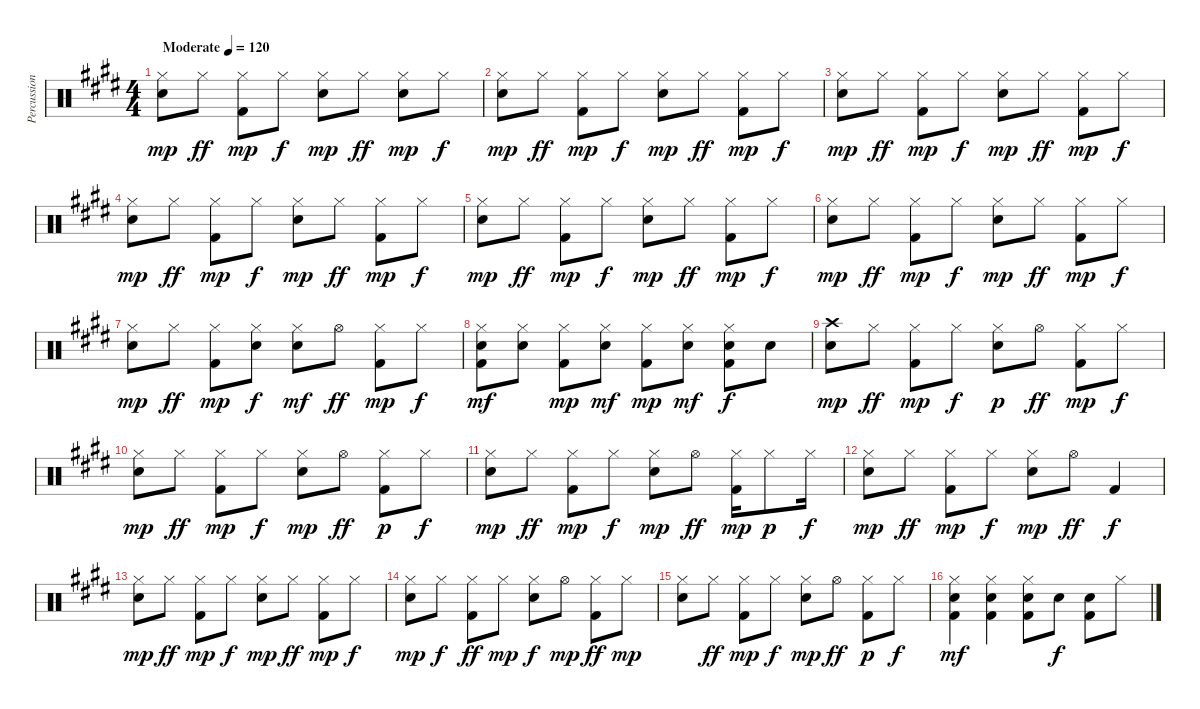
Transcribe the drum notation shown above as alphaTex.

\track ("Percussion" "Percussion") {instrument percussion}
\staff {score}
\articulation defaults
\ts (4 4)
\tempo (120 "Moderate")
\clef neutral
\ks e
("Hi-Hat (closed)" "Snare (hit) 2").8{dy mp} "Hi-Hat (closed)".8{dy ff} ("Hi-Hat (closed)" "Kick (hit) 2").8{dy mp} "Hi-Hat (closed)".8{dy f} ("Hi-Hat (closed)" "Snare (hit) 2").8{dy mp} "Hi-Hat (closed)".8{dy ff} ("Hi-Hat (closed)" "Snare (hit) 2").8{dy mp} "Hi-Hat (closed)".8{dy f} |
("Hi-Hat (closed)" "Snare (hit) 2").8{dy mp} "Hi-Hat (closed)".8{dy ff} ("Hi-Hat (closed)" "Kick (hit) 2").8{dy mp} "Hi-Hat (closed)".8{dy f} ("Hi-Hat (closed)" "Snare (hit) 2").8{dy mp} "Hi-Hat (closed)".8{dy ff} ("Hi-Hat (closed)" "Kick (hit) 2").8{dy mp} "Hi-Hat (closed)".8{dy f} |
("Hi-Hat (closed)" "Snare (hit) 2").8{dy mp} "Hi-Hat (closed)".8{dy ff} ("Hi-Hat (closed)" "Kick (hit) 2").8{dy mp} "Hi-Hat (closed)".8{dy f} ("Hi-Hat (closed)" "Snare (hit) 2").8{dy mp} "Hi-Hat (closed)".8{dy ff} ("Hi-Hat (closed)" "Kick (hit) 2").8{dy mp} "Hi-Hat (closed)".8{dy f} |
("Hi-Hat (closed)" "Snare (hit) 2").8{dy mp} "Hi-Hat (closed)".8{dy ff} ("Hi-Hat (closed)" "Kick (hit) 2").8{dy mp} "Hi-Hat (closed)".8{dy f} ("Hi-Hat (closed)" "Snare (hit) 2").8{dy mp} "Hi-Hat (closed)".8{dy ff} ("Hi-Hat (closed)" "Kick (hit) 2").8{dy mp} "Hi-Hat (closed)".8{dy f} |
("Hi-Hat (closed)" "Snare (hit) 2").8{dy mp} "Hi-Hat (closed)".8{dy ff} ("Hi-Hat (closed)" "Kick (hit) 2").8{dy mp} "Hi-Hat (closed)".8{dy f} ("Hi-Hat (closed)" "Snare (hit) 2").8{dy mp} "Hi-Hat (closed)".8{dy ff} ("Hi-Hat (closed)" "Kick (hit) 2").8{dy mp} "Hi-Hat (closed)".8{dy f} |
("Hi-Hat (closed)" "Snare (hit) 2").8{dy mp} "Hi-Hat (closed)".8{dy ff} ("Hi-Hat (closed)" "Kick (hit) 2").8{dy mp} "Hi-Hat (closed)".8{dy f} ("Hi-Hat (closed)" "Snare (hit) 2").8{dy mp} "Hi-Hat (closed)".8{dy ff} ("Hi-Hat (closed)" "Kick (hit) 2").8{dy mp} "Hi-Hat (closed)".8{dy f} |
("Hi-Hat (closed)" "Snare (hit) 2").8{dy mp} "Hi-Hat (closed)".8{dy ff} ("Hi-Hat (closed)" "Kick (hit) 2").8{dy mp} ("Hi-Hat (closed)" "Snare (hit) 2").8{dy f} ("Hi-Hat (closed)" "Snare (hit) 2").8{dy mf} "Hi-Hat (open)".8{dy ff} ("Hi-Hat (closed)" "Kick (hit) 2").8{dy mp} "Hi-Hat (closed)".8{dy f} |
("Hi-Hat (closed)" "Snare (hit) 2" "Kick (hit) 2").8{dy mf} ("Hi-Hat (closed)" "Snare (hit) 2").8 ("Hi-Hat (closed)" "Kick (hit) 2").8{dy mp} ("Hi-Hat (closed)" "Snare (hit) 2").8{dy mf} ("Hi-Hat (closed)" "Kick (hit) 2").8{dy mp} ("Hi-Hat (closed)" "Snare (hit) 2").8{dy mf} ("Hi-Hat (closed)" "Snare (hit) 2" "Kick (hit) 2").8{dy f} "Snare (hit) 2".8 |
("Crash high (hit)" "Snare (hit) 2").8{dy mp} "Hi-Hat (closed)".8{dy ff} ("Hi-Hat (closed)" "Kick (hit) 2").8{dy mp} "Hi-Hat (closed)".8{dy f} ("Hi-Hat (closed)" "Snare (hit) 2").8{dy p} "Hi-Hat (open)".8{dy ff} ("Hi-Hat (closed)" "Kick (hit) 2").8{dy mp} "Hi-Hat (closed)".8{dy f} |
("Hi-Hat (closed)" "Snare (hit) 2").8{dy mp} "Hi-Hat (closed)".8{dy ff} ("Hi-Hat (closed)" "Kick (hit) 2").8{dy mp} "Hi-Hat (closed)".8{dy f} ("Hi-Hat (closed)" "Snare (hit) 2").8{dy mp} "Hi-Hat (open)".8{dy ff} ("Hi-Hat (closed)" "Kick (hit) 2").8{dy p} "Hi-Hat (closed)".8{dy f} |
("Hi-Hat (closed)" "Snare (hit) 2").8{dy mp} "Hi-Hat (closed)".8{dy ff} ("Hi-Hat (closed)" "Kick (hit) 2").8{dy mp} "Hi-Hat (closed)".8{dy f} ("Hi-Hat (closed)" "Snare (hit) 2").8{dy mp} "Hi-Hat (open)".8{dy ff} ("Hi-Hat (closed)" "Kick (hit) 2").16{dy mp} "Hi-Hat (closed)".8{dy p} "Hi-Hat (closed)".16{dy f} |
("Hi-Hat (closed)" "Snare (hit) 2").8{dy mp} "Hi-Hat (closed)".8{dy ff} ("Hi-Hat (closed)" "Kick (hit) 2").8{dy mp} "Hi-Hat (closed)".8{dy f} ("Hi-Hat (closed)" "Snare (hit) 2").8{dy mp} "Hi-Hat (open)".8{dy ff} "Kick (hit) 2".4{dy f} |
("Hi-Hat (closed)" "Snare (hit) 2").8{dy mp} "Hi-Hat (closed)".8{dy ff} ("Hi-Hat (closed)" "Kick (hit) 2").8{dy mp} "Hi-Hat (closed)".8{dy f} ("Hi-Hat (closed)" "Snare (hit) 2").8{dy mp} "Hi-Hat (closed)".8{dy ff} ("Hi-Hat (closed)" "Kick (hit) 2").8{dy mp} "Hi-Hat (closed)".8{dy f} |
("Hi-Hat (closed)" "Snare (hit) 2").8{dy mp} "Hi-Hat (closed)".8{dy f} ("Hi-Hat (closed)" "Kick (hit) 2").8{dy ff} "Hi-Hat (closed)".8{dy mp} ("Hi-Hat (closed)" "Snare (hit) 2").8{dy f} "Hi-Hat (open)".8{dy mp} ("Hi-Hat (closed)" "Kick (hit) 2").8{dy ff} "Hi-Hat (closed)".8{dy mp} |
("Hi-Hat (closed)" "Snare (hit) 2").8 "Hi-Hat (closed)".8{dy ff} ("Hi-Hat (closed)" "Kick (hit) 2").8{dy mp} "Hi-Hat (closed)".8{dy f} ("Hi-Hat (closed)" "Snare (hit) 2").8{dy mp} "Hi-Hat (open)".8{dy ff} ("Hi-Hat (closed)" "Kick (hit) 2").8{dy p} "Hi-Hat (closed)".8{dy f} |
("Hi-Hat (closed)" "Snare (hit) 2" "Kick (hit) 2").4{dy mf} ("Hi-Hat (closed)" "Snare (hit) 2" "Kick (hit) 2").4 ("Hi-Hat (closed)" "Snare (hit) 2" "Kick (hit) 2").8 "Snare (hit) 2".8{dy f} ("Snare (hit) 2" "Kick (hit) 2").8 "Hi-Hat (closed)".8
